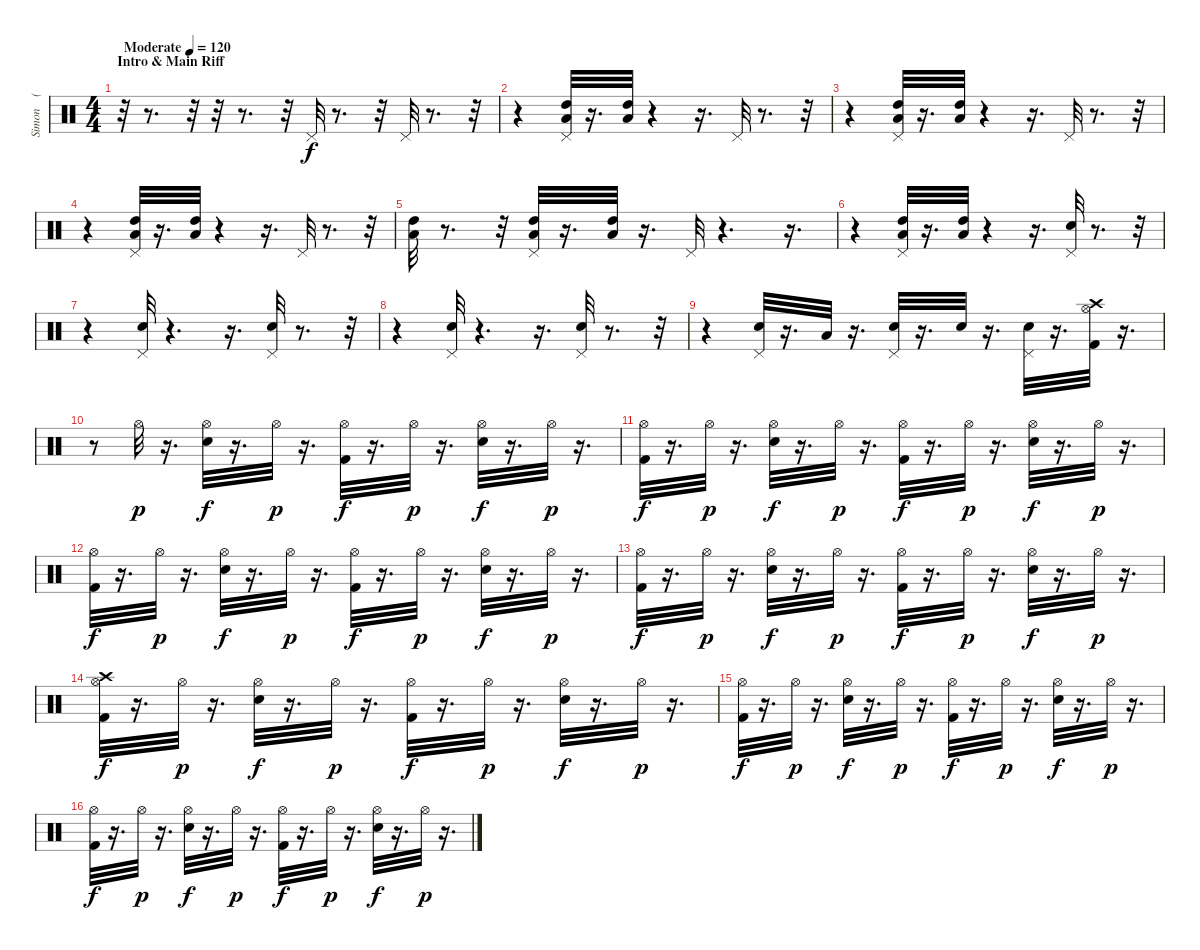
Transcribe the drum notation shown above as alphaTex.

\track ("Simon    (Drums)" "Simon    (") {instrument percussion}
\staff {score}
\articulation defaults
\ts (4 4)
\section ("" "Intro & Main Riff")
\tempo (120 "Moderate")
\clef neutral
\ks c
r.32{dy f} r.8{d} r.32 r.32 r.8{d} r.32 "Pedal Hi-Hat (hit)".32 r.8{d} r.32 "Pedal Hi-Hat (hit)".32 r.8{d} r.32 |
r.4 ("Low Tom (hit)" "Pedal Hi-Hat (hit)" "High Tom (hit)").32 r.16{d} ("Low Tom (hit)" "High Tom (hit)").32 r.4 r.16{d} "Pedal Hi-Hat (hit)".32 r.8{d} r.32 |
r.4 ("Low Tom (hit)" "High Tom (hit)" "Pedal Hi-Hat (hit)").32 r.16{d} ("Low Tom (hit)" "High Tom (hit)").32 r.4 r.16{d} "Pedal Hi-Hat (hit)".32 r.8{d} r.32 |
r.4 ("Low Tom (hit)" "Pedal Hi-Hat (hit)" "High Tom (hit)").32 r.16{d} ("Low Tom (hit)" "High Tom (hit)").32 r.4 r.16{d} "Pedal Hi-Hat (hit)".32 r.8{d} r.32 |
("High Tom (hit)" "Low Tom (hit)").32 r.8{d} r.32 ("High Tom (hit)" "Low Tom (hit)" "Pedal Hi-Hat (hit)").32 r.16{d} ("High Tom (hit)" "Low Tom (hit)").32 r.16{d} "Pedal Hi-Hat (hit)".32 r.4{d} r.16{d} |
r.4 ("Low Tom (hit)" "Pedal Hi-Hat (hit)" "High Tom (hit)").32 r.16{d} ("Low Tom (hit)" "High Tom (hit)").32 r.4 r.16{d} ("Electric Snare (hit)" "Pedal Hi-Hat (hit)").32 r.8{d} r.32 |
r.4 ("Electric Snare (hit)" "Pedal Hi-Hat (hit)").32 r.4{d} r.16{d} ("Electric Snare (hit)" "Pedal Hi-Hat (hit)").32 r.8{d} r.32 |
r.4 ("Electric Snare (hit)" "Pedal Hi-Hat (hit)").32 r.4{d} r.16{d} ("Electric Snare (hit)" "Pedal Hi-Hat (hit)").32 r.8{d} r.32 |
r.4 ("Electric Snare (hit)" "Pedal Hi-Hat (hit)").32 r.16{d} "Low Tom (hit)".32 r.16{d} ("Electric Snare (hit)" "Pedal Hi-Hat (hit)").32 r.16{d} "Electric Snare (hit)".32 r.16{d} ("Electric Snare (hit)" "Pedal Hi-Hat (hit)").32 r.16{d} ("Hi-Hat (open)" "Crash high (hit)" "Kick (hit) 2").32 r.16{d} |
r.8 "Hi-Hat (open)".32{dy p} r.16{d} ("Hi-Hat (open)" "Electric Snare (hit)").32{dy f} r.16{d} "Hi-Hat (open)".32{dy p} r.16{d} ("Hi-Hat (open)" "Kick (hit) 2").32{dy f} r.16{d} "Hi-Hat (open)".32{dy p} r.16{d} ("Hi-Hat (open)" "Electric Snare (hit)").32{dy f} r.16{d} "Hi-Hat (open)".32{dy p} r.16{d} |
("Hi-Hat (open)" "Kick (hit) 2").32{dy f} r.16{d} "Hi-Hat (open)".32{dy p} r.16{d} ("Hi-Hat (open)" "Electric Snare (hit)").32{dy f} r.16{d} "Hi-Hat (open)".32{dy p} r.16{d} ("Hi-Hat (open)" "Kick (hit) 2").32{dy f} r.16{d} "Hi-Hat (open)".32{dy p} r.16{d} ("Hi-Hat (open)" "Electric Snare (hit)").32{dy f} r.16{d} "Hi-Hat (open)".32{dy p} r.16{d} |
("Hi-Hat (open)" "Kick (hit) 2").32{dy f} r.16{d} "Hi-Hat (open)".32{dy p} r.16{d} ("Hi-Hat (open)" "Electric Snare (hit)").32{dy f} r.16{d} "Hi-Hat (open)".32{dy p} r.16{d} ("Hi-Hat (open)" "Kick (hit) 2").32{dy f} r.16{d} "Hi-Hat (open)".32{dy p} r.16{d} ("Hi-Hat (open)" "Electric Snare (hit)").32{dy f} r.16{d} "Hi-Hat (open)".32{dy p} r.16{d} |
("Hi-Hat (open)" "Kick (hit) 2").32{dy f} r.16{d} "Hi-Hat (open)".32{dy p} r.16{d} ("Hi-Hat (open)" "Electric Snare (hit)").32{dy f} r.16{d} "Hi-Hat (open)".32{dy p} r.16{d} ("Hi-Hat (open)" "Kick (hit) 2").32{dy f} r.16{d} "Hi-Hat (open)".32{dy p} r.16{d} ("Hi-Hat (open)" "Electric Snare (hit)").32{dy f} r.16{d} "Hi-Hat (open)".32{dy p} r.16{d} |
("Crash high (hit)" "Hi-Hat (open)" "Kick (hit) 2").32{dy f} r.16{d} "Hi-Hat (open)".32{dy p} r.16{d} ("Hi-Hat (open)" "Electric Snare (hit)").32{dy f} r.16{d} "Hi-Hat (open)".32{dy p} r.16{d} ("Hi-Hat (open)" "Kick (hit) 2").32{dy f} r.16{d} "Hi-Hat (open)".32{dy p} r.16{d} ("Hi-Hat (open)" "Electric Snare (hit)").32{dy f} r.16{d} "Hi-Hat (open)".32{dy p} r.16{d} |
("Hi-Hat (open)" "Kick (hit) 2").32{dy f} r.16{d} "Hi-Hat (open)".32{dy p} r.16{d} ("Hi-Hat (open)" "Electric Snare (hit)").32{dy f} r.16{d} "Hi-Hat (open)".32{dy p} r.16{d} ("Hi-Hat (open)" "Kick (hit) 2").32{dy f} r.16{d} "Hi-Hat (open)".32{dy p} r.16{d} ("Hi-Hat (open)" "Electric Snare (hit)").32{dy f} r.16{d} "Hi-Hat (open)".32{dy p} r.16{d} |
("Hi-Hat (open)" "Kick (hit) 2").32{dy f} r.16{d} "Hi-Hat (open)".32{dy p} r.16{d} ("Hi-Hat (open)" "Electric Snare (hit)").32{dy f} r.16{d} "Hi-Hat (open)".32{dy p} r.16{d} ("Hi-Hat (open)" "Kick (hit) 2").32{dy f} r.16{d} "Hi-Hat (open)".32{dy p} r.16{d} ("Hi-Hat (open)" "Electric Snare (hit)").32{dy f} r.16{d} "Hi-Hat (open)".32{dy p} r.16{d}
